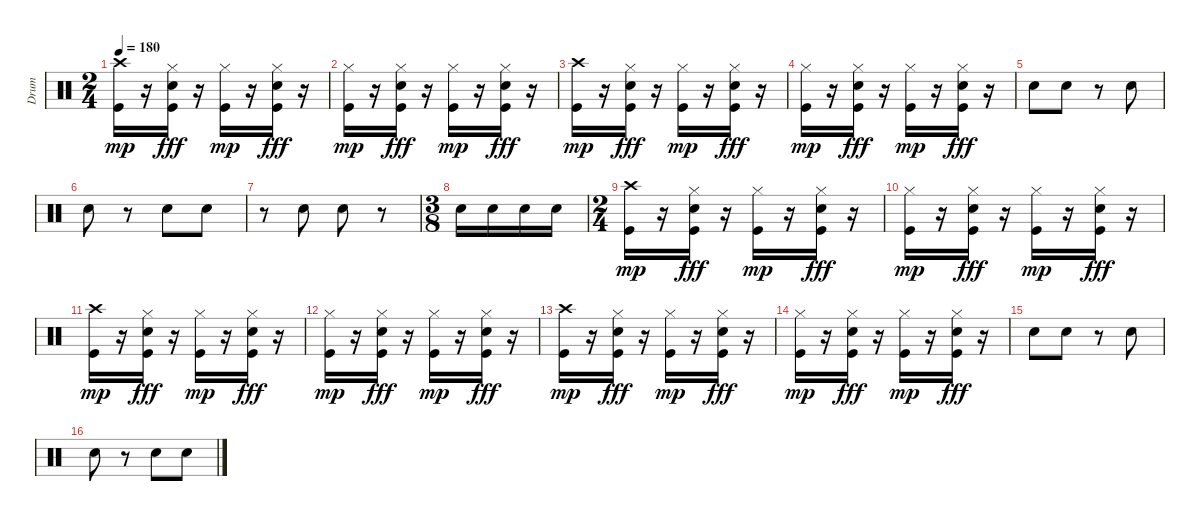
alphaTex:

\track ("Drum" "Drum") {instrument percussion}
\staff {score}
\articulation defaults
\ts (2 4)
\tempo 180
\clef neutral
\ks c
("Crash high (hit)" "Kick (hit)").16{dy mp} r.16 ("Hi-Hat (closed)" "Snare (hit) 2" "Kick (hit)").16{dy fff} r.16 ("Hi-Hat (closed)" "Kick (hit)").16{dy mp} r.16 ("Hi-Hat (closed)" "Snare (hit) 2" "Kick (hit)").16{dy fff} r.16 |
("Hi-Hat (closed)" "Kick (hit)").16{dy mp} r.16 ("Hi-Hat (closed)" "Snare (hit) 2" "Kick (hit)").16{dy fff} r.16 ("Hi-Hat (closed)" "Kick (hit)").16{dy mp} r.16 ("Hi-Hat (closed)" "Snare (hit) 2" "Kick (hit)").16{dy fff} r.16 |
("Crash high (hit)" "Kick (hit)").16{dy mp} r.16 ("Hi-Hat (closed)" "Snare (hit) 2" "Kick (hit)").16{dy fff} r.16 ("Hi-Hat (closed)" "Kick (hit)").16{dy mp} r.16 ("Hi-Hat (closed)" "Snare (hit) 2" "Kick (hit)").16{dy fff} r.16 |
("Hi-Hat (closed)" "Kick (hit)").16{dy mp} r.16 ("Hi-Hat (closed)" "Snare (hit) 2" "Kick (hit)").16{dy fff} r.16 ("Hi-Hat (closed)" "Kick (hit)").16{dy mp} r.16 ("Hi-Hat (closed)" "Snare (hit) 2" "Kick (hit)").16{dy fff} r.16 |
"Snare (hit) 2".8 "Snare (hit) 2".8 r.8 "Snare (hit) 2".8 |
"Snare (hit) 2".8 r.8 "Snare (hit) 2".8 "Snare (hit) 2".8 |
r.8 "Snare (hit) 2".8 "Snare (hit) 2".8 r.8 |
\ts (3 8)
"Snare (hit) 2".16 "Snare (hit) 2".16 "Snare (hit) 2".16 "Snare (hit) 2".16 |
\ts (2 4)
("Crash high (hit)" "Kick (hit)").16{dy mp} r.16 ("Hi-Hat (closed)" "Snare (hit) 2" "Kick (hit)").16{dy fff} r.16 ("Hi-Hat (closed)" "Kick (hit)").16{dy mp} r.16 ("Hi-Hat (closed)" "Snare (hit) 2" "Kick (hit)").16{dy fff} r.16 |
("Hi-Hat (closed)" "Kick (hit)").16{dy mp} r.16 ("Hi-Hat (closed)" "Snare (hit) 2" "Kick (hit)").16{dy fff} r.16 ("Hi-Hat (closed)" "Kick (hit)").16{dy mp} r.16 ("Hi-Hat (closed)" "Snare (hit) 2" "Kick (hit)").16{dy fff} r.16 |
("Crash high (hit)" "Kick (hit)").16{dy mp} r.16 ("Hi-Hat (closed)" "Snare (hit) 2" "Kick (hit)").16{dy fff} r.16 ("Hi-Hat (closed)" "Kick (hit)").16{dy mp} r.16 ("Hi-Hat (closed)" "Snare (hit) 2" "Kick (hit)").16{dy fff} r.16 |
("Hi-Hat (closed)" "Kick (hit)").16{dy mp} r.16 ("Hi-Hat (closed)" "Snare (hit) 2" "Kick (hit)").16{dy fff} r.16 ("Hi-Hat (closed)" "Kick (hit)").16{dy mp} r.16 ("Hi-Hat (closed)" "Snare (hit) 2" "Kick (hit)").16{dy fff} r.16 |
("Crash high (hit)" "Kick (hit)").16{dy mp} r.16 ("Hi-Hat (closed)" "Snare (hit) 2" "Kick (hit)").16{dy fff} r.16 ("Hi-Hat (closed)" "Kick (hit)").16{dy mp} r.16 ("Hi-Hat (closed)" "Snare (hit) 2" "Kick (hit)").16{dy fff} r.16 |
("Hi-Hat (closed)" "Kick (hit)").16{dy mp} r.16 ("Hi-Hat (closed)" "Snare (hit) 2" "Kick (hit)").16{dy fff} r.16 ("Hi-Hat (closed)" "Kick (hit)").16{dy mp} r.16 ("Hi-Hat (closed)" "Snare (hit) 2" "Kick (hit)").16{dy fff} r.16 |
"Snare (hit) 2".8 "Snare (hit) 2".8 r.8 "Snare (hit) 2".8 |
"Snare (hit) 2".8 r.8 "Snare (hit) 2".8 "Snare (hit) 2".8
